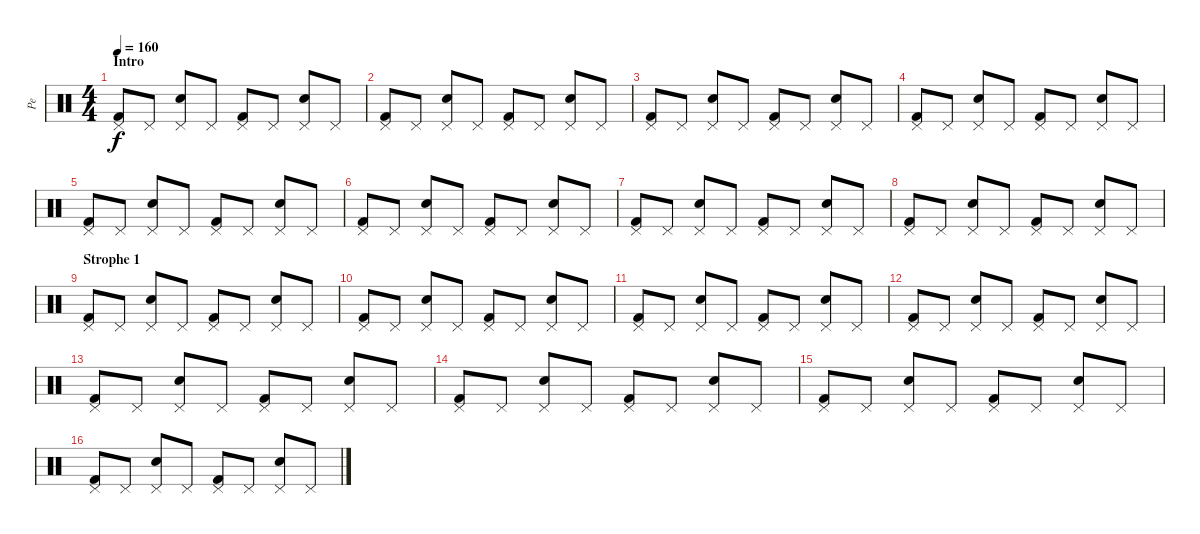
\track ("Pe" "Pe") {instrument percussion}
\staff {score}
\articulation defaults
\ts (4 4)
\section ("" "Intro")
\tempo 160
\clef neutral
\ks c
("Pedal Hi-Hat (hit)" "Kick (hit) 2").8{dy f} "Pedal Hi-Hat (hit)".8 ("Pedal Hi-Hat (hit)" "Electric Snare (hit)").8 "Pedal Hi-Hat (hit)".8 ("Pedal Hi-Hat (hit)" "Kick (hit) 2").8 "Pedal Hi-Hat (hit)".8 ("Pedal Hi-Hat (hit)" "Electric Snare (hit)").8 "Pedal Hi-Hat (hit)".8 |
("Pedal Hi-Hat (hit)" "Kick (hit) 2").8 "Pedal Hi-Hat (hit)".8 ("Pedal Hi-Hat (hit)" "Electric Snare (hit)").8 "Pedal Hi-Hat (hit)".8 ("Pedal Hi-Hat (hit)" "Kick (hit) 2").8 "Pedal Hi-Hat (hit)".8 ("Pedal Hi-Hat (hit)" "Electric Snare (hit)").8 "Pedal Hi-Hat (hit)".8 |
("Pedal Hi-Hat (hit)" "Kick (hit) 2").8 "Pedal Hi-Hat (hit)".8 ("Pedal Hi-Hat (hit)" "Electric Snare (hit)").8 "Pedal Hi-Hat (hit)".8 ("Pedal Hi-Hat (hit)" "Kick (hit) 2").8 "Pedal Hi-Hat (hit)".8 ("Pedal Hi-Hat (hit)" "Electric Snare (hit)").8 "Pedal Hi-Hat (hit)".8 |
("Pedal Hi-Hat (hit)" "Kick (hit) 2").8 "Pedal Hi-Hat (hit)".8 ("Pedal Hi-Hat (hit)" "Electric Snare (hit)").8 "Pedal Hi-Hat (hit)".8 ("Pedal Hi-Hat (hit)" "Kick (hit) 2").8 "Pedal Hi-Hat (hit)".8 ("Pedal Hi-Hat (hit)" "Electric Snare (hit)").8 "Pedal Hi-Hat (hit)".8 |
("Pedal Hi-Hat (hit)" "Kick (hit) 2").8 "Pedal Hi-Hat (hit)".8 ("Pedal Hi-Hat (hit)" "Electric Snare (hit)").8 "Pedal Hi-Hat (hit)".8 ("Pedal Hi-Hat (hit)" "Kick (hit) 2").8 "Pedal Hi-Hat (hit)".8 ("Pedal Hi-Hat (hit)" "Electric Snare (hit)").8 "Pedal Hi-Hat (hit)".8 |
("Pedal Hi-Hat (hit)" "Kick (hit) 2").8 "Pedal Hi-Hat (hit)".8 ("Pedal Hi-Hat (hit)" "Electric Snare (hit)").8 "Pedal Hi-Hat (hit)".8 ("Pedal Hi-Hat (hit)" "Kick (hit) 2").8 "Pedal Hi-Hat (hit)".8 ("Pedal Hi-Hat (hit)" "Electric Snare (hit)").8 "Pedal Hi-Hat (hit)".8 |
("Pedal Hi-Hat (hit)" "Kick (hit) 2").8 "Pedal Hi-Hat (hit)".8 ("Pedal Hi-Hat (hit)" "Electric Snare (hit)").8 "Pedal Hi-Hat (hit)".8 ("Pedal Hi-Hat (hit)" "Kick (hit) 2").8 "Pedal Hi-Hat (hit)".8 ("Pedal Hi-Hat (hit)" "Electric Snare (hit)").8 "Pedal Hi-Hat (hit)".8 |
("Pedal Hi-Hat (hit)" "Kick (hit) 2").8 "Pedal Hi-Hat (hit)".8 ("Pedal Hi-Hat (hit)" "Electric Snare (hit)").8 "Pedal Hi-Hat (hit)".8 ("Pedal Hi-Hat (hit)" "Kick (hit) 2").8 "Pedal Hi-Hat (hit)".8 ("Pedal Hi-Hat (hit)" "Electric Snare (hit)").8 "Pedal Hi-Hat (hit)".8 |
\section ("" "Strophe 1")
("Pedal Hi-Hat (hit)" "Kick (hit) 2").8 "Pedal Hi-Hat (hit)".8 ("Pedal Hi-Hat (hit)" "Electric Snare (hit)").8 "Pedal Hi-Hat (hit)".8 ("Pedal Hi-Hat (hit)" "Kick (hit) 2").8 "Pedal Hi-Hat (hit)".8 ("Pedal Hi-Hat (hit)" "Electric Snare (hit)").8 "Pedal Hi-Hat (hit)".8 |
("Pedal Hi-Hat (hit)" "Kick (hit) 2").8 "Pedal Hi-Hat (hit)".8 ("Pedal Hi-Hat (hit)" "Electric Snare (hit)").8 "Pedal Hi-Hat (hit)".8 ("Pedal Hi-Hat (hit)" "Kick (hit) 2").8 "Pedal Hi-Hat (hit)".8 ("Pedal Hi-Hat (hit)" "Electric Snare (hit)").8 "Pedal Hi-Hat (hit)".8 |
("Pedal Hi-Hat (hit)" "Kick (hit) 2").8 "Pedal Hi-Hat (hit)".8 ("Pedal Hi-Hat (hit)" "Electric Snare (hit)").8 "Pedal Hi-Hat (hit)".8 ("Pedal Hi-Hat (hit)" "Kick (hit) 2").8 "Pedal Hi-Hat (hit)".8 ("Pedal Hi-Hat (hit)" "Electric Snare (hit)").8 "Pedal Hi-Hat (hit)".8 |
("Pedal Hi-Hat (hit)" "Kick (hit) 2").8 "Pedal Hi-Hat (hit)".8 ("Pedal Hi-Hat (hit)" "Electric Snare (hit)").8 "Pedal Hi-Hat (hit)".8 ("Pedal Hi-Hat (hit)" "Kick (hit) 2").8 "Pedal Hi-Hat (hit)".8 ("Pedal Hi-Hat (hit)" "Electric Snare (hit)").8 "Pedal Hi-Hat (hit)".8 |
("Pedal Hi-Hat (hit)" "Kick (hit) 2").8 "Pedal Hi-Hat (hit)".8 ("Pedal Hi-Hat (hit)" "Electric Snare (hit)").8 "Pedal Hi-Hat (hit)".8 ("Pedal Hi-Hat (hit)" "Kick (hit) 2").8 "Pedal Hi-Hat (hit)".8 ("Pedal Hi-Hat (hit)" "Electric Snare (hit)").8 "Pedal Hi-Hat (hit)".8 |
("Pedal Hi-Hat (hit)" "Kick (hit) 2").8 "Pedal Hi-Hat (hit)".8 ("Pedal Hi-Hat (hit)" "Electric Snare (hit)").8 "Pedal Hi-Hat (hit)".8 ("Pedal Hi-Hat (hit)" "Kick (hit) 2").8 "Pedal Hi-Hat (hit)".8 ("Pedal Hi-Hat (hit)" "Electric Snare (hit)").8 "Pedal Hi-Hat (hit)".8 |
("Pedal Hi-Hat (hit)" "Kick (hit) 2").8 "Pedal Hi-Hat (hit)".8 ("Pedal Hi-Hat (hit)" "Electric Snare (hit)").8 "Pedal Hi-Hat (hit)".8 ("Pedal Hi-Hat (hit)" "Kick (hit) 2").8 "Pedal Hi-Hat (hit)".8 ("Pedal Hi-Hat (hit)" "Electric Snare (hit)").8 "Pedal Hi-Hat (hit)".8 |
("Pedal Hi-Hat (hit)" "Kick (hit) 2").8 "Pedal Hi-Hat (hit)".8 ("Pedal Hi-Hat (hit)" "Electric Snare (hit)").8 "Pedal Hi-Hat (hit)".8 ("Pedal Hi-Hat (hit)" "Kick (hit) 2").8 "Pedal Hi-Hat (hit)".8 ("Pedal Hi-Hat (hit)" "Electric Snare (hit)").8 "Pedal Hi-Hat (hit)".8
